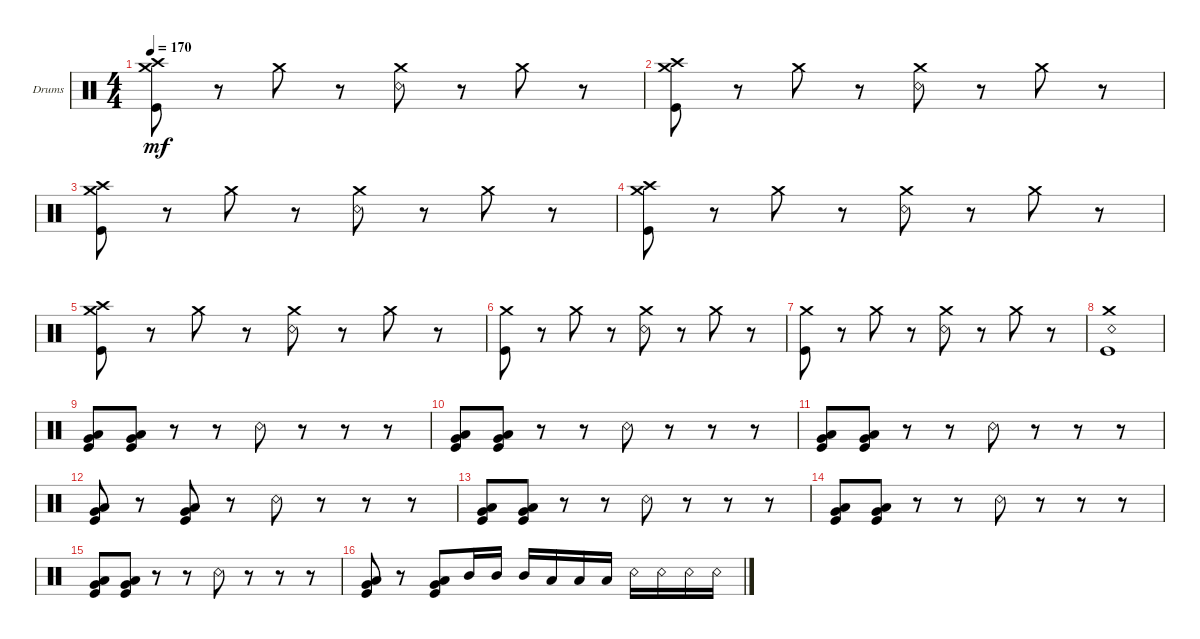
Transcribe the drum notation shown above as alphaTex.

\defaultSystemsLayout 4
\bracketExtendMode groupsimilarinstruments
\firstSystemTrackNameOrientation horizontal
\otherSystemsTrackNameOrientation horizontal
\track ("Drumkit" "Drums") {instrument percussion}
\staff {score}
\articulation defaults
\ts (4 4)
\tempo 170
\clef neutral
\ks c
("Kick (hit)" "Crash medium (hit)" "Crash high (hit)").8{dy mf} r.8 "Crash medium (hit)".8 r.8 ("Snare (rim shot)" "Crash medium (hit)").8 r.8 "Crash medium (hit)".8 r.8 |
("Kick (hit)" "Crash medium (hit)" "Crash high (hit)").8 r.8 "Crash medium (hit)".8 r.8 ("Snare (rim shot)" "Crash medium (hit)").8 r.8 "Crash medium (hit)".8 r.8 |
("Kick (hit)" "Crash medium (hit)" "Crash high (hit)").8 r.8 "Crash medium (hit)".8 r.8 ("Snare (rim shot)" "Crash medium (hit)").8 r.8 "Crash medium (hit)".8 r.8 |
("Kick (hit)" "Crash medium (hit)" "Crash high (hit)").8 r.8 "Crash medium (hit)".8 r.8 ("Snare (rim shot)" "Crash medium (hit)").8 r.8 "Crash medium (hit)".8 r.8 |
("Kick (hit)" "Crash medium (hit)" "Crash high (hit)").8 r.8 "Crash medium (hit)".8 r.8 ("Snare (rim shot)" "Crash medium (hit)").8 r.8 "Crash medium (hit)".8 r.8 |
("Kick (hit)" "Crash medium (hit)").8 r.8 "Crash medium (hit)".8 r.8 ("Snare (rim shot)" "Crash medium (hit)").8 r.8 "Crash medium (hit)".8 r.8 |
("Kick (hit)" "Crash medium (hit)").8 r.8 "Crash medium (hit)".8 r.8 ("Snare (rim shot)" "Crash medium (hit)").8 r.8 "Crash medium (hit)".8 r.8 |
("Kick (hit)" "Snare (rim shot)" "Crash medium (hit)").1 |
("Kick (hit)" "Very Low Tom (hit)" "Low Tom (hit)").8 ("Kick (hit)" "Low Tom (hit)" "Very Low Tom (hit)").8 r.8 r.8 "Snare (rim shot)".8 r.8 r.8 r.8 |
("Kick (hit)" "Very Low Tom (hit)" "Low Tom (hit)").8 ("Kick (hit)" "Low Tom (hit)" "Very Low Tom (hit)").8 r.8 r.8 "Snare (rim shot)".8 r.8 r.8 r.8 |
("Kick (hit)" "Very Low Tom (hit)" "Low Tom (hit)").8 ("Kick (hit)" "Low Tom (hit)" "Very Low Tom (hit)").8 r.8 r.8 "Snare (rim shot)".8 r.8 r.8 r.8 |
("Kick (hit)" "Very Low Tom (hit)" "Low Tom (hit)").8 r.8 ("Kick (hit)" "Very Low Tom (hit)" "Low Tom (hit)").8 r.8 "Snare (rim shot)".8 r.8 r.8 r.8 |
("Kick (hit)" "Very Low Tom (hit)" "Low Tom (hit)").8 ("Kick (hit)" "Low Tom (hit)" "Very Low Tom (hit)").8 r.8 r.8 "Snare (rim shot)".8 r.8 r.8 r.8 |
("Kick (hit)" "Very Low Tom (hit)" "Low Tom (hit)").8 ("Kick (hit)" "Low Tom (hit)" "Very Low Tom (hit)").8 r.8 r.8 "Snare (rim shot)".8 r.8 r.8 r.8 |
("Kick (hit)" "Very Low Tom (hit)" "Low Tom (hit)").8 ("Kick (hit)" "Low Tom (hit)" "Very Low Tom (hit)").8 r.8 r.8 "Snare (rim shot)".8 r.8 r.8 r.8 |
("Kick (hit)" "Very Low Tom (hit)" "Low Tom (hit)").8 r.8 ("Kick (hit)" "Very Low Tom (hit)" "Low Tom (hit)").8 "Mid Tom (hit)".16 "Mid Tom (hit)".16 "Mid Tom (hit)".16 "Low Tom (hit)".16 "Low Tom (hit)".16 "Low Tom (hit)".16 "Snare (rim shot)".16 "Snare (rim shot)".16 "Snare (rim shot)".16 "Snare (rim shot)".16
